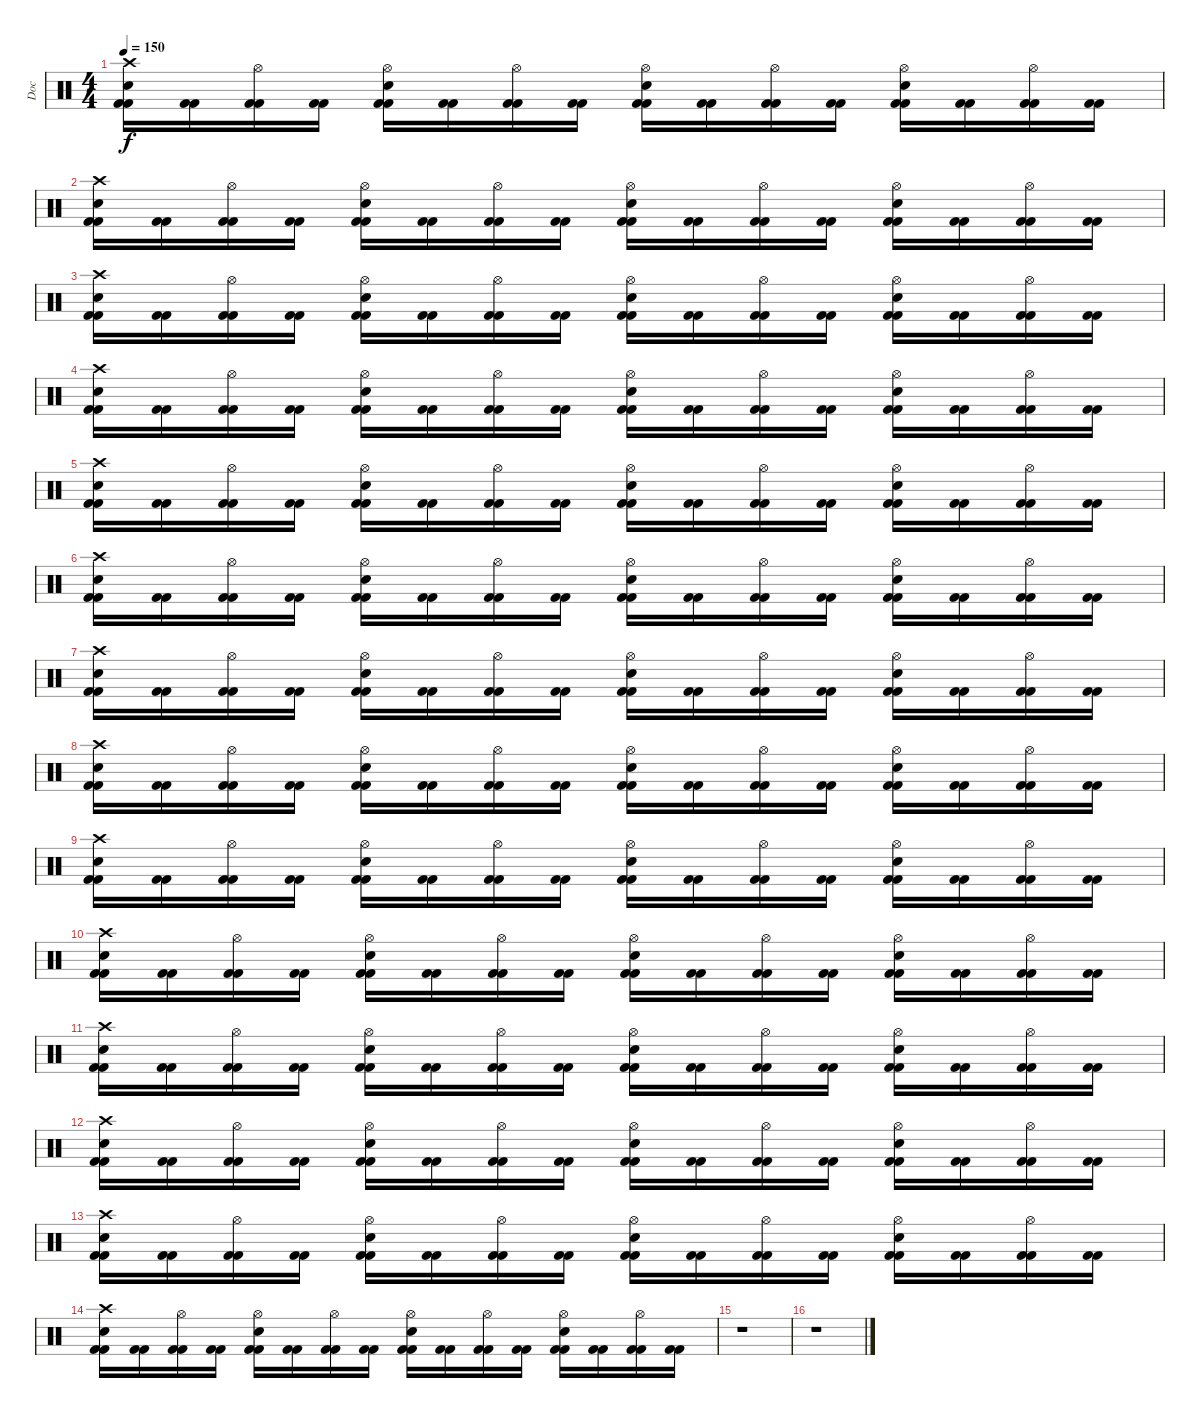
\track ("Doc" "Doc") {instrument percussion}
\staff {score}
\articulation defaults
\ts (4 4)
\tempo 150
\clef neutral
\ks c
("Kick (hit) 2" "Crash high (hit)" "Electric Snare (hit)" "Kick (hit) 2").16{dy f} ("Kick (hit) 2" "Kick (hit) 2").16 ("Kick (hit) 2" "Hi-Hat (open)" "Kick (hit) 2").16 ("Kick (hit) 2" "Kick (hit) 2").16 ("Kick (hit) 2" "Hi-Hat (open)" "Electric Snare (hit)" "Kick (hit) 2").16 ("Kick (hit) 2" "Kick (hit) 2").16 ("Kick (hit) 2" "Hi-Hat (open)" "Kick (hit) 2").16 ("Kick (hit) 2" "Kick (hit) 2").16 ("Kick (hit) 2" "Hi-Hat (open)" "Electric Snare (hit)" "Kick (hit) 2").16 ("Kick (hit) 2" "Kick (hit) 2").16 ("Kick (hit) 2" "Hi-Hat (open)" "Kick (hit) 2").16 ("Kick (hit) 2" "Kick (hit) 2").16 ("Kick (hit) 2" "Hi-Hat (open)" "Electric Snare (hit)" "Kick (hit) 2").16 ("Kick (hit) 2" "Kick (hit) 2").16 ("Kick (hit) 2" "Hi-Hat (open)" "Kick (hit) 2").16 ("Kick (hit) 2" "Kick (hit) 2").16 |
("Kick (hit) 2" "Crash high (hit)" "Electric Snare (hit)" "Kick (hit) 2").16 ("Kick (hit) 2" "Kick (hit) 2").16 ("Kick (hit) 2" "Hi-Hat (open)" "Kick (hit) 2").16 ("Kick (hit) 2" "Kick (hit) 2").16 ("Kick (hit) 2" "Hi-Hat (open)" "Electric Snare (hit)" "Kick (hit) 2").16 ("Kick (hit) 2" "Kick (hit) 2").16 ("Kick (hit) 2" "Hi-Hat (open)" "Kick (hit) 2").16 ("Kick (hit) 2" "Kick (hit) 2").16 ("Kick (hit) 2" "Hi-Hat (open)" "Electric Snare (hit)" "Kick (hit) 2").16 ("Kick (hit) 2" "Kick (hit) 2").16 ("Kick (hit) 2" "Hi-Hat (open)" "Kick (hit) 2").16 ("Kick (hit) 2" "Kick (hit) 2").16 ("Kick (hit) 2" "Hi-Hat (open)" "Electric Snare (hit)" "Kick (hit) 2").16 ("Kick (hit) 2" "Kick (hit) 2").16 ("Kick (hit) 2" "Hi-Hat (open)" "Kick (hit) 2").16 ("Kick (hit) 2" "Kick (hit) 2").16 |
("Kick (hit) 2" "Crash high (hit)" "Electric Snare (hit)" "Kick (hit) 2").16 ("Kick (hit) 2" "Kick (hit) 2").16 ("Kick (hit) 2" "Hi-Hat (open)" "Kick (hit) 2").16 ("Kick (hit) 2" "Kick (hit) 2").16 ("Kick (hit) 2" "Hi-Hat (open)" "Electric Snare (hit)" "Kick (hit) 2").16 ("Kick (hit) 2" "Kick (hit) 2").16 ("Kick (hit) 2" "Hi-Hat (open)" "Kick (hit) 2").16 ("Kick (hit) 2" "Kick (hit) 2").16 ("Kick (hit) 2" "Hi-Hat (open)" "Electric Snare (hit)" "Kick (hit) 2").16 ("Kick (hit) 2" "Kick (hit) 2").16 ("Kick (hit) 2" "Hi-Hat (open)" "Kick (hit) 2").16 ("Kick (hit) 2" "Kick (hit) 2").16 ("Kick (hit) 2" "Hi-Hat (open)" "Electric Snare (hit)" "Kick (hit) 2").16 ("Kick (hit) 2" "Kick (hit) 2").16 ("Kick (hit) 2" "Hi-Hat (open)" "Kick (hit) 2").16 ("Kick (hit) 2" "Kick (hit) 2").16 |
("Kick (hit) 2" "Crash high (hit)" "Electric Snare (hit)" "Kick (hit) 2").16 ("Kick (hit) 2" "Kick (hit) 2").16 ("Kick (hit) 2" "Hi-Hat (open)" "Kick (hit) 2").16 ("Kick (hit) 2" "Kick (hit) 2").16 ("Kick (hit) 2" "Hi-Hat (open)" "Electric Snare (hit)" "Kick (hit) 2").16 ("Kick (hit) 2" "Kick (hit) 2").16 ("Kick (hit) 2" "Hi-Hat (open)" "Kick (hit) 2").16 ("Kick (hit) 2" "Kick (hit) 2").16 ("Kick (hit) 2" "Hi-Hat (open)" "Electric Snare (hit)" "Kick (hit) 2").16 ("Kick (hit) 2" "Kick (hit) 2").16 ("Kick (hit) 2" "Hi-Hat (open)" "Kick (hit) 2").16 ("Kick (hit) 2" "Kick (hit) 2").16 ("Kick (hit) 2" "Hi-Hat (open)" "Electric Snare (hit)" "Kick (hit) 2").16 ("Kick (hit) 2" "Kick (hit) 2").16 ("Kick (hit) 2" "Hi-Hat (open)" "Kick (hit) 2").16 ("Kick (hit) 2" "Kick (hit) 2").16 |
("Kick (hit) 2" "Crash high (hit)" "Electric Snare (hit)" "Kick (hit) 2").16 ("Kick (hit) 2" "Kick (hit) 2").16 ("Kick (hit) 2" "Hi-Hat (open)" "Kick (hit) 2").16 ("Kick (hit) 2" "Kick (hit) 2").16 ("Kick (hit) 2" "Hi-Hat (open)" "Electric Snare (hit)" "Kick (hit) 2").16 ("Kick (hit) 2" "Kick (hit) 2").16 ("Kick (hit) 2" "Hi-Hat (open)" "Kick (hit) 2").16 ("Kick (hit) 2" "Kick (hit) 2").16 ("Kick (hit) 2" "Hi-Hat (open)" "Electric Snare (hit)" "Kick (hit) 2").16 ("Kick (hit) 2" "Kick (hit) 2").16 ("Kick (hit) 2" "Hi-Hat (open)" "Kick (hit) 2").16 ("Kick (hit) 2" "Kick (hit) 2").16 ("Kick (hit) 2" "Hi-Hat (open)" "Electric Snare (hit)" "Kick (hit) 2").16 ("Kick (hit) 2" "Kick (hit) 2").16 ("Kick (hit) 2" "Hi-Hat (open)" "Kick (hit) 2").16 ("Kick (hit) 2" "Kick (hit) 2").16 |
("Kick (hit) 2" "Crash high (hit)" "Electric Snare (hit)" "Kick (hit) 2").16 ("Kick (hit) 2" "Kick (hit) 2").16 ("Kick (hit) 2" "Hi-Hat (open)" "Kick (hit) 2").16 ("Kick (hit) 2" "Kick (hit) 2").16 ("Kick (hit) 2" "Hi-Hat (open)" "Electric Snare (hit)" "Kick (hit) 2").16 ("Kick (hit) 2" "Kick (hit) 2").16 ("Kick (hit) 2" "Hi-Hat (open)" "Kick (hit) 2").16 ("Kick (hit) 2" "Kick (hit) 2").16 ("Kick (hit) 2" "Hi-Hat (open)" "Electric Snare (hit)" "Kick (hit) 2").16 ("Kick (hit) 2" "Kick (hit) 2").16 ("Kick (hit) 2" "Hi-Hat (open)" "Kick (hit) 2").16 ("Kick (hit) 2" "Kick (hit) 2").16 ("Kick (hit) 2" "Hi-Hat (open)" "Electric Snare (hit)" "Kick (hit) 2").16 ("Kick (hit) 2" "Kick (hit) 2").16 ("Kick (hit) 2" "Hi-Hat (open)" "Kick (hit) 2").16 ("Kick (hit) 2" "Kick (hit) 2").16 |
("Kick (hit) 2" "Crash high (hit)" "Electric Snare (hit)" "Kick (hit) 2").16 ("Kick (hit) 2" "Kick (hit) 2").16 ("Kick (hit) 2" "Hi-Hat (open)" "Kick (hit) 2").16 ("Kick (hit) 2" "Kick (hit) 2").16 ("Kick (hit) 2" "Hi-Hat (open)" "Electric Snare (hit)" "Kick (hit) 2").16 ("Kick (hit) 2" "Kick (hit) 2").16 ("Kick (hit) 2" "Hi-Hat (open)" "Kick (hit) 2").16 ("Kick (hit) 2" "Kick (hit) 2").16 ("Kick (hit) 2" "Hi-Hat (open)" "Electric Snare (hit)" "Kick (hit) 2").16 ("Kick (hit) 2" "Kick (hit) 2").16 ("Kick (hit) 2" "Hi-Hat (open)" "Kick (hit) 2").16 ("Kick (hit) 2" "Kick (hit) 2").16 ("Kick (hit) 2" "Hi-Hat (open)" "Electric Snare (hit)" "Kick (hit) 2").16 ("Kick (hit) 2" "Kick (hit) 2").16 ("Kick (hit) 2" "Hi-Hat (open)" "Kick (hit) 2").16 ("Kick (hit) 2" "Kick (hit) 2").16 |
("Kick (hit) 2" "Crash high (hit)" "Electric Snare (hit)" "Kick (hit) 2").16 ("Kick (hit) 2" "Kick (hit) 2").16 ("Kick (hit) 2" "Hi-Hat (open)" "Kick (hit) 2").16 ("Kick (hit) 2" "Kick (hit) 2").16 ("Kick (hit) 2" "Hi-Hat (open)" "Electric Snare (hit)" "Kick (hit) 2").16 ("Kick (hit) 2" "Kick (hit) 2").16 ("Kick (hit) 2" "Hi-Hat (open)" "Kick (hit) 2").16 ("Kick (hit) 2" "Kick (hit) 2").16 ("Kick (hit) 2" "Hi-Hat (open)" "Electric Snare (hit)" "Kick (hit) 2").16 ("Kick (hit) 2" "Kick (hit) 2").16 ("Kick (hit) 2" "Hi-Hat (open)" "Kick (hit) 2").16 ("Kick (hit) 2" "Kick (hit) 2").16 ("Kick (hit) 2" "Hi-Hat (open)" "Electric Snare (hit)" "Kick (hit) 2").16 ("Kick (hit) 2" "Kick (hit) 2").16 ("Kick (hit) 2" "Hi-Hat (open)" "Kick (hit) 2").16 ("Kick (hit) 2" "Kick (hit) 2").16 |
("Kick (hit) 2" "Crash high (hit)" "Electric Snare (hit)" "Kick (hit) 2").16 ("Kick (hit) 2" "Kick (hit) 2").16 ("Kick (hit) 2" "Hi-Hat (open)" "Kick (hit) 2").16 ("Kick (hit) 2" "Kick (hit) 2").16 ("Kick (hit) 2" "Hi-Hat (open)" "Electric Snare (hit)" "Kick (hit) 2").16 ("Kick (hit) 2" "Kick (hit) 2").16 ("Kick (hit) 2" "Hi-Hat (open)" "Kick (hit) 2").16 ("Kick (hit) 2" "Kick (hit) 2").16 ("Kick (hit) 2" "Hi-Hat (open)" "Electric Snare (hit)" "Kick (hit) 2").16 ("Kick (hit) 2" "Kick (hit) 2").16 ("Kick (hit) 2" "Hi-Hat (open)" "Kick (hit) 2").16 ("Kick (hit) 2" "Kick (hit) 2").16 ("Kick (hit) 2" "Hi-Hat (open)" "Electric Snare (hit)" "Kick (hit) 2").16 ("Kick (hit) 2" "Kick (hit) 2").16 ("Kick (hit) 2" "Hi-Hat (open)" "Kick (hit) 2").16 ("Kick (hit) 2" "Kick (hit) 2").16 |
("Kick (hit) 2" "Crash high (hit)" "Electric Snare (hit)" "Kick (hit) 2").16 ("Kick (hit) 2" "Kick (hit) 2").16 ("Kick (hit) 2" "Hi-Hat (open)" "Kick (hit) 2").16 ("Kick (hit) 2" "Kick (hit) 2").16 ("Kick (hit) 2" "Hi-Hat (open)" "Electric Snare (hit)" "Kick (hit) 2").16 ("Kick (hit) 2" "Kick (hit) 2").16 ("Kick (hit) 2" "Hi-Hat (open)" "Kick (hit) 2").16 ("Kick (hit) 2" "Kick (hit) 2").16 ("Kick (hit) 2" "Hi-Hat (open)" "Electric Snare (hit)" "Kick (hit) 2").16 ("Kick (hit) 2" "Kick (hit) 2").16 ("Kick (hit) 2" "Hi-Hat (open)" "Kick (hit) 2").16 ("Kick (hit) 2" "Kick (hit) 2").16 ("Kick (hit) 2" "Hi-Hat (open)" "Electric Snare (hit)" "Kick (hit) 2").16 ("Kick (hit) 2" "Kick (hit) 2").16 ("Kick (hit) 2" "Hi-Hat (open)" "Kick (hit) 2").16 ("Kick (hit) 2" "Kick (hit) 2").16 |
("Kick (hit) 2" "Crash high (hit)" "Electric Snare (hit)" "Kick (hit) 2").16 ("Kick (hit) 2" "Kick (hit) 2").16 ("Kick (hit) 2" "Hi-Hat (open)" "Kick (hit) 2").16 ("Kick (hit) 2" "Kick (hit) 2").16 ("Kick (hit) 2" "Hi-Hat (open)" "Electric Snare (hit)" "Kick (hit) 2").16 ("Kick (hit) 2" "Kick (hit) 2").16 ("Kick (hit) 2" "Hi-Hat (open)" "Kick (hit) 2").16 ("Kick (hit) 2" "Kick (hit) 2").16 ("Kick (hit) 2" "Hi-Hat (open)" "Electric Snare (hit)" "Kick (hit) 2").16 ("Kick (hit) 2" "Kick (hit) 2").16 ("Kick (hit) 2" "Hi-Hat (open)" "Kick (hit) 2").16 ("Kick (hit) 2" "Kick (hit) 2").16 ("Kick (hit) 2" "Hi-Hat (open)" "Electric Snare (hit)" "Kick (hit) 2").16 ("Kick (hit) 2" "Kick (hit) 2").16 ("Kick (hit) 2" "Hi-Hat (open)" "Kick (hit) 2").16 ("Kick (hit) 2" "Kick (hit) 2").16 |
("Kick (hit) 2" "Crash high (hit)" "Electric Snare (hit)" "Kick (hit) 2").16 ("Kick (hit) 2" "Kick (hit) 2").16 ("Kick (hit) 2" "Hi-Hat (open)" "Kick (hit) 2").16 ("Kick (hit) 2" "Kick (hit) 2").16 ("Kick (hit) 2" "Hi-Hat (open)" "Electric Snare (hit)" "Kick (hit) 2").16 ("Kick (hit) 2" "Kick (hit) 2").16 ("Kick (hit) 2" "Hi-Hat (open)" "Kick (hit) 2").16 ("Kick (hit) 2" "Kick (hit) 2").16 ("Kick (hit) 2" "Hi-Hat (open)" "Electric Snare (hit)" "Kick (hit) 2").16 ("Kick (hit) 2" "Kick (hit) 2").16 ("Kick (hit) 2" "Hi-Hat (open)" "Kick (hit) 2").16 ("Kick (hit) 2" "Kick (hit) 2").16 ("Kick (hit) 2" "Hi-Hat (open)" "Electric Snare (hit)" "Kick (hit) 2").16 ("Kick (hit) 2" "Kick (hit) 2").16 ("Kick (hit) 2" "Hi-Hat (open)" "Kick (hit) 2").16 ("Kick (hit) 2" "Kick (hit) 2").16 |
("Kick (hit) 2" "Crash high (hit)" "Electric Snare (hit)" "Kick (hit) 2").16 ("Kick (hit) 2" "Kick (hit) 2").16 ("Kick (hit) 2" "Hi-Hat (open)" "Kick (hit) 2").16 ("Kick (hit) 2" "Kick (hit) 2").16 ("Kick (hit) 2" "Hi-Hat (open)" "Electric Snare (hit)" "Kick (hit) 2").16 ("Kick (hit) 2" "Kick (hit) 2").16 ("Kick (hit) 2" "Hi-Hat (open)" "Kick (hit) 2").16 ("Kick (hit) 2" "Kick (hit) 2").16 ("Kick (hit) 2" "Hi-Hat (open)" "Electric Snare (hit)" "Kick (hit) 2").16 ("Kick (hit) 2" "Kick (hit) 2").16 ("Kick (hit) 2" "Hi-Hat (open)" "Kick (hit) 2").16 ("Kick (hit) 2" "Kick (hit) 2").16 ("Kick (hit) 2" "Hi-Hat (open)" "Electric Snare (hit)" "Kick (hit) 2").16 ("Kick (hit) 2" "Kick (hit) 2").16 ("Kick (hit) 2" "Hi-Hat (open)" "Kick (hit) 2").16 ("Kick (hit) 2" "Kick (hit) 2").16 |
("Kick (hit) 2" "Crash high (hit)" "Electric Snare (hit)" "Kick (hit) 2").16 ("Kick (hit) 2" "Kick (hit) 2").16 ("Kick (hit) 2" "Hi-Hat (open)" "Kick (hit) 2").16 ("Kick (hit) 2" "Kick (hit) 2").16 ("Kick (hit) 2" "Hi-Hat (open)" "Electric Snare (hit)" "Kick (hit) 2").16 ("Kick (hit) 2" "Kick (hit) 2").16 ("Kick (hit) 2" "Hi-Hat (open)" "Kick (hit) 2").16 ("Kick (hit) 2" "Kick (hit) 2").16 ("Kick (hit) 2" "Hi-Hat (open)" "Electric Snare (hit)" "Kick (hit) 2").16 ("Kick (hit) 2" "Kick (hit) 2").16 ("Kick (hit) 2" "Hi-Hat (open)" "Kick (hit) 2").16 ("Kick (hit) 2" "Kick (hit) 2").16 ("Kick (hit) 2" "Hi-Hat (open)" "Electric Snare (hit)" "Kick (hit) 2").16 ("Kick (hit) 2" "Kick (hit) 2").16 ("Kick (hit) 2" "Hi-Hat (open)" "Kick (hit) 2").16 ("Kick (hit) 2" "Kick (hit) 2").16 |
r.1 |
r.1
